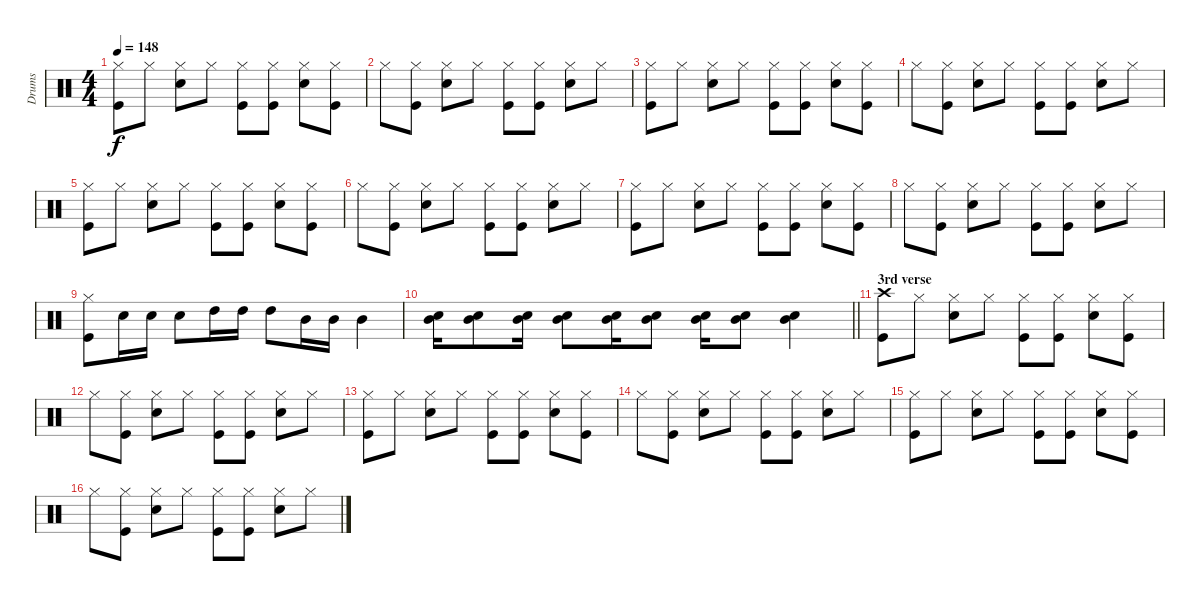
\track ("Drums" "Drums") {instrument percussion}
\staff
\articulation defaults
\ts (4 4)
\tempo 148
\clef neutral
\ks c
("Hi-Hat (closed)" "Kick (hit)").8{dy f} "Hi-Hat (closed)".8 ("Hi-Hat (closed)" "Snare (hit) 2").8 "Hi-Hat (closed)".8 ("Hi-Hat (closed)" "Kick (hit)").8 ("Hi-Hat (closed)" "Kick (hit)").8 ("Hi-Hat (closed)" "Snare (hit) 2").8 ("Hi-Hat (closed)" "Kick (hit)").8 |
"Hi-Hat (closed)".8 ("Hi-Hat (closed)" "Kick (hit)").8 ("Hi-Hat (closed)" "Snare (hit) 2").8 "Hi-Hat (closed)".8 ("Hi-Hat (closed)" "Kick (hit)").8 ("Hi-Hat (closed)" "Kick (hit)").8 ("Hi-Hat (closed)" "Snare (hit) 2").8 "Hi-Hat (closed)".8 |
("Hi-Hat (closed)" "Kick (hit)").8 "Hi-Hat (closed)".8 ("Hi-Hat (closed)" "Snare (hit) 2").8 "Hi-Hat (closed)".8 ("Hi-Hat (closed)" "Kick (hit)").8 ("Hi-Hat (closed)" "Kick (hit)").8 ("Hi-Hat (closed)" "Snare (hit) 2").8 ("Hi-Hat (closed)" "Kick (hit)").8 |
"Hi-Hat (closed)".8 ("Hi-Hat (closed)" "Kick (hit)").8 ("Hi-Hat (closed)" "Snare (hit) 2").8 "Hi-Hat (closed)".8 ("Hi-Hat (closed)" "Kick (hit)").8 ("Hi-Hat (closed)" "Kick (hit)").8 ("Hi-Hat (closed)" "Snare (hit) 2").8 "Hi-Hat (closed)".8 |
("Hi-Hat (closed)" "Kick (hit)").8 "Hi-Hat (closed)".8 ("Hi-Hat (closed)" "Snare (hit) 2").8 "Hi-Hat (closed)".8 ("Hi-Hat (closed)" "Kick (hit)").8 ("Hi-Hat (closed)" "Kick (hit)").8 ("Hi-Hat (closed)" "Snare (hit) 2").8 ("Hi-Hat (closed)" "Kick (hit)").8 |
"Hi-Hat (closed)".8 ("Hi-Hat (closed)" "Kick (hit)").8 ("Hi-Hat (closed)" "Snare (hit) 2").8 "Hi-Hat (closed)".8 ("Hi-Hat (closed)" "Kick (hit)").8 ("Hi-Hat (closed)" "Kick (hit)").8 ("Hi-Hat (closed)" "Snare (hit) 2").8 "Hi-Hat (closed)".8 |
("Hi-Hat (closed)" "Kick (hit)").8 "Hi-Hat (closed)".8 ("Hi-Hat (closed)" "Snare (hit) 2").8 "Hi-Hat (closed)".8 ("Hi-Hat (closed)" "Kick (hit)").8 ("Hi-Hat (closed)" "Kick (hit)").8 ("Hi-Hat (closed)" "Snare (hit) 2").8 ("Hi-Hat (closed)" "Kick (hit)").8 |
"Hi-Hat (closed)".8 ("Hi-Hat (closed)" "Kick (hit)").8 ("Hi-Hat (closed)" "Snare (hit) 2").8 "Hi-Hat (closed)".8 ("Hi-Hat (closed)" "Kick (hit)").8 ("Hi-Hat (closed)" "Kick (hit)").8 ("Hi-Hat (closed)" "Snare (hit) 2").8 "Hi-Hat (closed)".8 |
("Hi-Hat (closed)" "Kick (hit)").8 "Snare (hit) 2".16 "Snare (hit) 2".16 "Snare (hit) 2".8 "High Tom (hit)".16 "High Tom (hit)".16 "High Tom (hit)".8 "Mid Tom (hit)".16 "Mid Tom (hit)".16 "Mid Tom (hit)".4 |
\barLineRight lightlight
("Mid Tom (hit)" "Snare (hit) 2").16 ("Mid Tom (hit)" "Snare (hit) 2").8 ("Mid Tom (hit)" "Snare (hit) 2").16 ("Mid Tom (hit)" "Snare (hit) 2").8 ("Mid Tom (hit)" "Snare (hit) 2").16 ("Mid Tom (hit)" "Snare (hit) 2").8 ("Mid Tom (hit)" "Snare (hit) 2").16 ("Mid Tom (hit)" "Snare (hit) 2").8 ("Mid Tom (hit)" "Snare (hit) 2").4 |
\section ("" "3rd verse")
("Crash high (hit)" "Kick (hit)").8 "Hi-Hat (closed)".8 ("Hi-Hat (closed)" "Snare (hit) 2").8 "Hi-Hat (closed)".8 ("Hi-Hat (closed)" "Kick (hit)").8 ("Hi-Hat (closed)" "Kick (hit)").8 ("Hi-Hat (closed)" "Snare (hit) 2").8 ("Hi-Hat (closed)" "Kick (hit)").8 |
"Hi-Hat (closed)".8 ("Hi-Hat (closed)" "Kick (hit)").8 ("Hi-Hat (closed)" "Snare (hit) 2").8 "Hi-Hat (closed)".8 ("Hi-Hat (closed)" "Kick (hit)").8 ("Hi-Hat (closed)" "Kick (hit)").8 ("Hi-Hat (closed)" "Snare (hit) 2").8 "Hi-Hat (closed)".8 |
("Hi-Hat (closed)" "Kick (hit)").8 "Hi-Hat (closed)".8 ("Hi-Hat (closed)" "Snare (hit) 2").8 "Hi-Hat (closed)".8 ("Hi-Hat (closed)" "Kick (hit)").8 ("Hi-Hat (closed)" "Kick (hit)").8 ("Hi-Hat (closed)" "Snare (hit) 2").8 ("Hi-Hat (closed)" "Kick (hit)").8 |
"Hi-Hat (closed)".8 ("Hi-Hat (closed)" "Kick (hit)").8 ("Hi-Hat (closed)" "Snare (hit) 2").8 "Hi-Hat (closed)".8 ("Hi-Hat (closed)" "Kick (hit)").8 ("Hi-Hat (closed)" "Kick (hit)").8 ("Hi-Hat (closed)" "Snare (hit) 2").8 "Hi-Hat (closed)".8 |
("Hi-Hat (closed)" "Kick (hit)").8 "Hi-Hat (closed)".8 ("Hi-Hat (closed)" "Snare (hit) 2").8 "Hi-Hat (closed)".8 ("Hi-Hat (closed)" "Kick (hit)").8 ("Hi-Hat (closed)" "Kick (hit)").8 ("Hi-Hat (closed)" "Snare (hit) 2").8 ("Hi-Hat (closed)" "Kick (hit)").8 |
"Hi-Hat (closed)".8 ("Hi-Hat (closed)" "Kick (hit)").8 ("Hi-Hat (closed)" "Snare (hit) 2").8 "Hi-Hat (closed)".8 ("Hi-Hat (closed)" "Kick (hit)").8 ("Hi-Hat (closed)" "Kick (hit)").8 ("Hi-Hat (closed)" "Snare (hit) 2").8 "Hi-Hat (closed)".8
